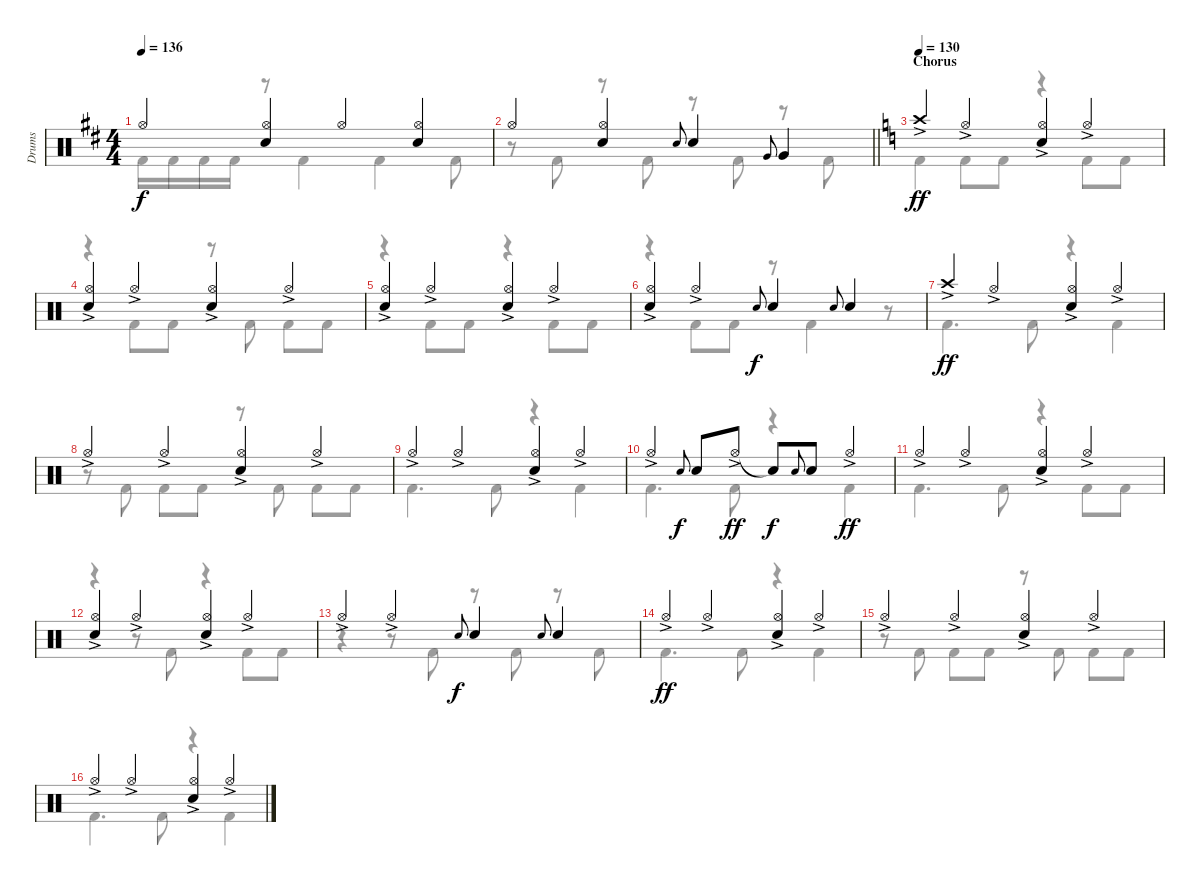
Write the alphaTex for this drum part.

\track ("Drums" "Drums") {instrument percussion}
\staff {score}
\articulation defaults
\voice
\ts (4 4)
\tempo 136
\clef neutral
\ks d "Hi-Hat (open)".4{dy f}
("Hi-Hat (open)" "Electric Snare (hit)").4 "Hi-Hat (open)".4 ("Hi-Hat (open)" "Electric Snare (hit)").4 |
\barLineRight lightlight "Hi-Hat (open)".4
("Hi-Hat (open)" "Electric Snare (hit)").4 "Electric Snare (hit)".8{gr onbeat} "Electric Snare (hit)".4 "Very Low Tom (hit)".8{gr onbeat} "Very Low Tom (hit)".4 |
\section ("" "Chorus")
\tempo 130
\ks c "Crash high (hit)"{ac}.4{dy ff} "Hi-Hat (open)"{ac}.4
("Hi-Hat (open)"{ac} "Electric Snare (hit)").4 "Hi-Hat (open)"{ac}.4 |
("Hi-Hat (open)"{ac} "Electric Snare (hit)").4 "Hi-Hat (open)"{ac}.4 ("Hi-Hat (open)"{ac} "Electric Snare (hit)").4 "Hi-Hat (open)"{ac}.4 |
("Hi-Hat (open)"{ac} "Electric Snare (hit)").4 "Hi-Hat (open)"{ac}.4 ("Hi-Hat (open)"{ac} "Electric Snare (hit)").4 "Hi-Hat (open)"{ac}.4 |
("Hi-Hat (open)"{ac} "Electric Snare (hit)").4 "Hi-Hat (open)"{ac}.4 "Electric Snare (hit)".8{gr onbeat dy f} "Electric Snare (hit)".4 "Electric Snare (hit)".8{gr onbeat} "Electric Snare (hit)".4 |
"Crash high (hit)"{ac}.4{dy ff} "Hi-Hat (open)"{ac}.4 ("Hi-Hat (open)"{ac} "Electric Snare (hit)").4 "Hi-Hat (open)"{ac}.4 |
"Hi-Hat (open)"{ac}.4 "Hi-Hat (open)"{ac}.4 ("Hi-Hat (open)"{ac} "Electric Snare (hit)").4 "Hi-Hat (open)"{ac}.4 |
"Hi-Hat (open)"{ac}.4 "Hi-Hat (open)"{ac}.4 ("Hi-Hat (open)"{ac} "Electric Snare (hit)").4 "Hi-Hat (open)"{ac}.4 |
"Hi-Hat (open)"{ac}.4 "Electric Snare (hit)".8{gr onbeat dy f} "Electric Snare (hit)".8 "Hi-Hat (open)"{ac}.8{dy ff} "Snare (hit)"{t}.8{dy f} "Electric Snare (hit)".8{gr onbeat} "Electric Snare (hit)".8 "Hi-Hat (open)"{ac}.4{dy ff} |
"Hi-Hat (open)"{ac}.4 "Hi-Hat (open)"{ac}.4 ("Hi-Hat (open)"{ac} "Electric Snare (hit)").4 "Hi-Hat (open)"{ac}.4 |
("Hi-Hat (open)"{ac} "Electric Snare (hit)").4 "Hi-Hat (open)"{ac}.4 ("Hi-Hat (open)"{ac} "Electric Snare (hit)").4 "Hi-Hat (open)"{ac}.4 |
"Hi-Hat (open)"{ac}.4 "Hi-Hat (open)"{ac}.4 "Electric Snare (hit)".8{gr onbeat dy f} "Electric Snare (hit)".4 "Electric Snare (hit)".8{gr onbeat} "Electric Snare (hit)".4 |
"Hi-Hat (open)"{ac}.4{dy ff} "Hi-Hat (open)"{ac}.4 ("Hi-Hat (open)"{ac} "Electric Snare (hit)").4 "Hi-Hat (open)"{ac}.4 |
"Hi-Hat (open)"{ac}.4 "Hi-Hat (open)"{ac}.4 ("Hi-Hat (open)"{ac} "Electric Snare (hit)").4 "Hi-Hat (open)"{ac}.4 |
"Hi-Hat (open)"{ac}.4 "Hi-Hat (open)"{ac}.4 ("Hi-Hat (open)"{ac} "Electric Snare (hit)").4 "Hi-Hat (open)"{ac}.4
\voice
\clef neutral
\ottava regular
\simile none
\ks d "Kick (hit) 2".16{dy f} "Kick (hit) 2".16 "Kick (hit) 2".16 "Kick (hit) 2".16
r.8 "Kick (hit) 2".4 "Kick (hit) 2".4 "Kick (hit) 2".8 |
\barLineRight lightlight
r.8 "Kick (hit) 2".8 r.8 "Kick (hit) 2".8 r.8 "Kick (hit) 2".8 r.8 "Kick (hit) 2".8 |
\ks c "Kick (hit) 2".4 "Kick (hit) 2".8 "Kick (hit) 2".8
r.4 "Kick (hit) 2".8 "Kick (hit) 2".8 |
r.4 "Kick (hit) 2".8 "Kick (hit) 2".8 r.8 "Kick (hit) 2".8 "Kick (hit) 2".8 "Kick (hit) 2".8 |
r.4 "Kick (hit) 2".8 "Kick (hit) 2".8 r.4 "Kick (hit) 2".8 "Kick (hit) 2".8 |
r.4 "Kick (hit) 2".8 "Kick (hit) 2".8 r.8 "Kick (hit) 2".4 r.8 |
"Kick (hit) 2".4{d} "Kick (hit) 2".8 r.4 "Kick (hit) 2".4 |
r.8 "Kick (hit) 2".8 "Kick (hit) 2".8 "Kick (hit) 2".8 r.8 "Kick (hit) 2".8 "Kick (hit) 2".8 "Kick (hit) 2".8 |
"Kick (hit) 2".4{d} "Kick (hit) 2".8 r.4 "Kick (hit) 2".4 |
"Kick (hit) 2".4{d} "Kick (hit) 2".8 r.4 "Kick (hit) 2".4 |
"Kick (hit) 2".4{d} "Kick (hit) 2".8 r.4 "Kick (hit) 2".8{beam merge} "Kick (hit) 2".8 |
r.4 r.8 "Kick (hit) 2".8 r.4 "Kick (hit) 2".8 "Kick (hit) 2".8 |
r.4 r.8 "Kick (hit) 2".8 r.8 "Kick (hit) 2".8 r.8 "Kick (hit) 2".8 |
"Kick (hit) 2".4{d} "Kick (hit) 2".8 r.4 "Kick (hit) 2".4 |
r.8 "Kick (hit) 2".8 "Kick (hit) 2".8 "Kick (hit) 2".8 r.8 "Kick (hit) 2".8 "Kick (hit) 2".8 "Kick (hit) 2".8 |
"Kick (hit) 2".4{d} "Kick (hit) 2".8 r.4 "Kick (hit) 2".4
